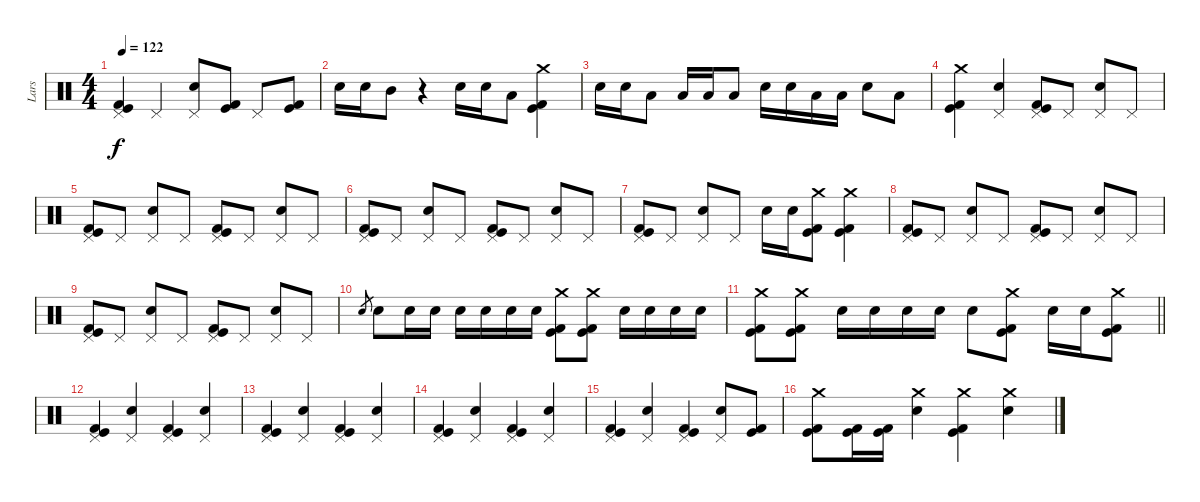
\track ("Lars" "Lars") {instrument percussion}
\staff {score}
\articulation defaults
\ts (4 4)
\tempo 122
\clef neutral
\ks aminor
("Pedal Hi-Hat (hit)" "Kick (hit)" "Kick (hit) 2").4{dy f} "Pedal Hi-Hat (hit)".4 ("Pedal Hi-Hat (hit)" "Electric Snare (hit)").8 ("Kick (hit)" "Kick (hit) 2").8 "Pedal Hi-Hat (hit)".8 ("Kick (hit)" "Kick (hit) 2").8 |
"Electric Snare (hit)".16 "Electric Snare (hit)".16 "Mid Tom (hit)".8 r.4 "Electric Snare (hit)".16 "Electric Snare (hit)".16 "Low Tom (hit)".8 ("Crash medium (hit)" "Kick (hit)" "Kick (hit) 2").4 |
"Electric Snare (hit)".16 "Electric Snare (hit)".16 "Low Tom (hit)".8 "Low Tom (hit)".16 "Low Tom (hit)".16 "Low Tom (hit)".8 "Electric Snare (hit)".16 "Electric Snare (hit)".16 "Low Tom (hit)".16 "Low Tom (hit)".16 "Electric Snare (hit)".8 "Low Tom (hit)".8 |
("Crash medium (hit)" "Kick (hit)" "Kick (hit) 2").4 ("Pedal Hi-Hat (hit)" "Electric Snare (hit)").4 ("Pedal Hi-Hat (hit)" "Kick (hit)" "Kick (hit) 2").8 "Pedal Hi-Hat (hit)".8 ("Pedal Hi-Hat (hit)" "Electric Snare (hit)").8 "Pedal Hi-Hat (hit)".8 |
("Pedal Hi-Hat (hit)" "Kick (hit)" "Kick (hit) 2").8 "Pedal Hi-Hat (hit)".8 ("Pedal Hi-Hat (hit)" "Electric Snare (hit)").8 "Pedal Hi-Hat (hit)".8 ("Pedal Hi-Hat (hit)" "Kick (hit)" "Kick (hit) 2").8 "Pedal Hi-Hat (hit)".8 ("Pedal Hi-Hat (hit)" "Electric Snare (hit)").8 "Pedal Hi-Hat (hit)".8 |
("Pedal Hi-Hat (hit)" "Kick (hit)" "Kick (hit) 2").8 "Pedal Hi-Hat (hit)".8 ("Pedal Hi-Hat (hit)" "Electric Snare (hit)").8 "Pedal Hi-Hat (hit)".8 ("Pedal Hi-Hat (hit)" "Kick (hit)" "Kick (hit) 2").8 "Pedal Hi-Hat (hit)".8 ("Pedal Hi-Hat (hit)" "Electric Snare (hit)").8 "Pedal Hi-Hat (hit)".8 |
("Pedal Hi-Hat (hit)" "Kick (hit)" "Kick (hit) 2").8 "Pedal Hi-Hat (hit)".8 ("Pedal Hi-Hat (hit)" "Electric Snare (hit)").8 "Pedal Hi-Hat (hit)".8 "Electric Snare (hit)".16 "Electric Snare (hit)".16 ("Crash medium (hit)" "Kick (hit)" "Kick (hit) 2").8 ("Crash medium (hit)" "Kick (hit)" "Kick (hit) 2").4 |
("Pedal Hi-Hat (hit)" "Kick (hit)" "Kick (hit) 2").8 "Pedal Hi-Hat (hit)".8 ("Pedal Hi-Hat (hit)" "Electric Snare (hit)").8 "Pedal Hi-Hat (hit)".8 ("Pedal Hi-Hat (hit)" "Kick (hit)" "Kick (hit) 2").8 "Pedal Hi-Hat (hit)".8 ("Pedal Hi-Hat (hit)" "Electric Snare (hit)").8 "Pedal Hi-Hat (hit)".8 |
("Pedal Hi-Hat (hit)" "Kick (hit)" "Kick (hit) 2").8 "Pedal Hi-Hat (hit)".8 ("Pedal Hi-Hat (hit)" "Electric Snare (hit)").8 "Pedal Hi-Hat (hit)".8 ("Pedal Hi-Hat (hit)" "Kick (hit)" "Kick (hit) 2").8 "Pedal Hi-Hat (hit)".8 ("Pedal Hi-Hat (hit)" "Electric Snare (hit)").8 "Pedal Hi-Hat (hit)".8 |
"Electric Snare (hit)".8{gr} "Electric Snare (hit)".8 "Electric Snare (hit)".16 "Electric Snare (hit)".16 "Electric Snare (hit)".16 "Electric Snare (hit)".16 "Electric Snare (hit)".16 "Electric Snare (hit)".16 ("Crash medium (hit)" "Kick (hit)" "Kick (hit) 2").8 ("Crash medium (hit)" "Kick (hit)" "Kick (hit) 2").8 "Electric Snare (hit)".16 "Electric Snare (hit)".16 "Electric Snare (hit)".16 "Electric Snare (hit)".16 |
\barLineRight lightlight
("Crash medium (hit)" "Kick (hit)" "Kick (hit) 2").8 ("Crash medium (hit)" "Kick (hit)" "Kick (hit) 2").8 "Electric Snare (hit)".16 "Electric Snare (hit)".16 "Electric Snare (hit)".16 "Electric Snare (hit)".16 "Electric Snare (hit)".8 ("Crash medium (hit)" "Kick (hit)" "Kick (hit) 2").8 "Electric Snare (hit)".16 "Electric Snare (hit)".16 ("Crash medium (hit)" "Kick (hit)" "Kick (hit) 2").8 |
("Pedal Hi-Hat (hit)" "Kick (hit)" "Kick (hit) 2").4 ("Pedal Hi-Hat (hit)" "Electric Snare (hit)").4 ("Pedal Hi-Hat (hit)" "Kick (hit)" "Kick (hit) 2").4 ("Pedal Hi-Hat (hit)" "Electric Snare (hit)").4 |
("Pedal Hi-Hat (hit)" "Kick (hit)" "Kick (hit) 2").4 ("Pedal Hi-Hat (hit)" "Electric Snare (hit)").4 ("Pedal Hi-Hat (hit)" "Kick (hit)" "Kick (hit) 2").4 ("Pedal Hi-Hat (hit)" "Electric Snare (hit)").4 |
("Pedal Hi-Hat (hit)" "Kick (hit)" "Kick (hit) 2").4 ("Pedal Hi-Hat (hit)" "Electric Snare (hit)").4 ("Pedal Hi-Hat (hit)" "Kick (hit)" "Kick (hit) 2").4 ("Pedal Hi-Hat (hit)" "Electric Snare (hit)").4 |
("Pedal Hi-Hat (hit)" "Kick (hit)" "Kick (hit) 2").4 ("Pedal Hi-Hat (hit)" "Electric Snare (hit)").4 ("Pedal Hi-Hat (hit)" "Kick (hit)" "Kick (hit) 2").4 ("Pedal Hi-Hat (hit)" "Electric Snare (hit)").8 ("Kick (hit)" "Kick (hit) 2").8 |
("Crash medium (hit)" "Kick (hit)" "Kick (hit) 2").8 ("Kick (hit)" "Kick (hit) 2").16 ("Kick (hit)" "Kick (hit) 2").16 ("Crash medium (hit)" "Electric Snare (hit)").4 ("Crash medium (hit)" "Kick (hit)" "Kick (hit) 2").4 ("Crash medium (hit)" "Electric Snare (hit)").4
